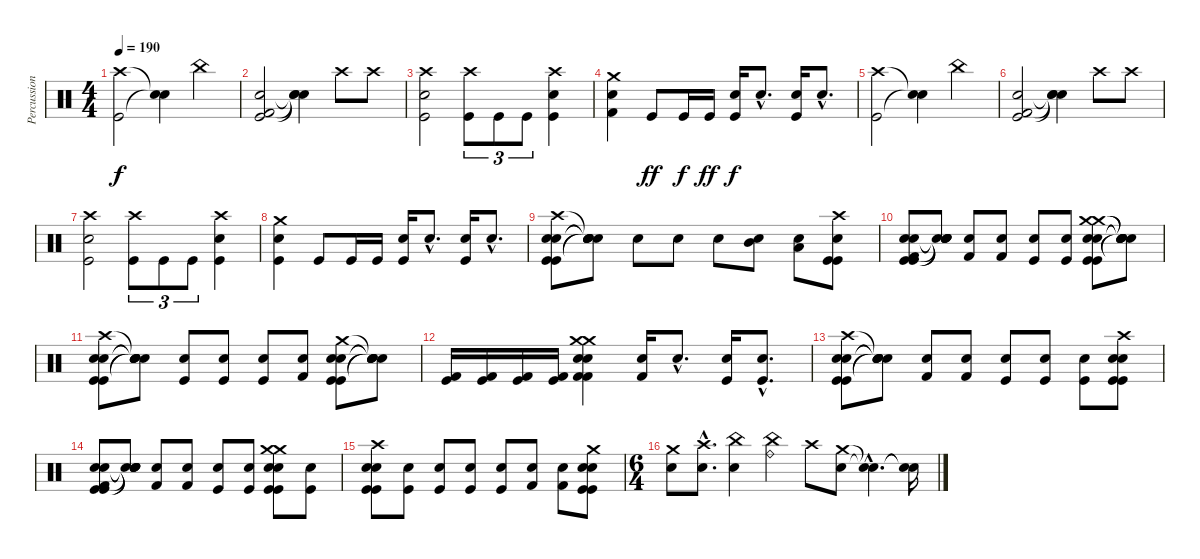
\track ("Percussion" "Percussion") {instrument percussion}
\staff {score}
\articulation defaults
\ts (4 4)
\tempo 190
\tempo 160
\tempo 190
\clef neutral
\ks c
("Crash high (hit)" "Kick (hit)").2{dy f} ("Snare (hit)"{t} "Snare (hit)"{t}).4 "China (hit)".4 |
("Snare (hit) 2" "Kick (hit)" "Kick (hit) 2").2 ("Snare (hit)"{t} "Snare (hit)"{t} "Snare (hit)"{t}).4 "Crash high (hit)".8 "Crash high (hit)".8 |
("Electric Snare (hit)" "Kick (hit)" "Crash high (hit)").2 ("Kick (hit)" "Crash high (hit)").8{tu (3 2)} "Kick (hit)".8{tu (3 2)} "Kick (hit)".8{tu (3 2)} ("Electric Snare (hit)" "Kick (hit)" "Crash high (hit)").4 |
("Electric Snare (hit)" "Kick (hit) 2" "Crash medium (hit)").4 "Kick (hit)".8{dy ff} "Kick (hit)".16{dy f} "Kick (hit)".16{dy ff} ("Snare (hit) 2" "Kick (hit)").16{dy f} "Electric Snare (hit)"{hac}.8{d} ("Snare (hit) 2" "Kick (hit)").16 "Electric Snare (hit)"{hac}.8{d} |
("Crash high (hit)" "Kick (hit)").2 ("Snare (hit)"{t} "Snare (hit)"{t}).4 "China (hit)".4 |
("Snare (hit) 2" "Kick (hit)" "Kick (hit) 2").2 ("Snare (hit)"{t} "Snare (hit)"{t} "Snare (hit)"{t}).4 "Crash high (hit)".8 "Crash high (hit)".8 |
("Electric Snare (hit)" "Kick (hit)" "Crash high (hit)").2 ("Kick (hit)" "Crash high (hit)").8{tu (3 2)} "Kick (hit)".8{tu (3 2)} "Kick (hit)".8{tu (3 2)} ("Electric Snare (hit)" "Kick (hit)" "Crash high (hit)").4 |
("Electric Snare (hit)" "Kick (hit)" "Crash medium (hit)").4 "Kick (hit)".8 "Kick (hit)".16 "Kick (hit)".16 ("Snare (hit) 2" "Kick (hit)").16 "Electric Snare (hit)"{hac}.8{d} ("Snare (hit) 2" "Kick (hit)").16 "Electric Snare (hit)"{hac}.8{d} |
("Electric Snare (hit)" "Electric Snare (hit)" "Kick (hit)" "Kick (hit)" "Crash high (hit)").8 ("Snare (hit)"{t} "Snare (hit)"{t} "Snare (hit)"{t} "Snare (hit)"{t} "Snare (hit)"{t}).8 "Snare (hit) 2".8 "Snare (hit) 2".8 "Snare (hit) 2".8 ("Snare (hit) 2" "Mid Tom (hit)").8 ("Snare (hit) 2" "Low Tom (hit)").8 ("Electric Snare (hit)" "Kick (hit)" "Kick (hit)" "Crash high (hit)").8 |
("Snare (hit) 2" "Snare (hit) 2" "Kick (hit)" "Kick (hit)" "Kick (hit) 2").8 ("Snare (hit)"{t} "Snare (hit)"{t} "Snare (hit)"{t} "Snare (hit)"{t} "Snare (hit)"{t}).8 ("Snare (hit) 2" "Kick (hit) 2").8 ("Snare (hit) 2" "Kick (hit) 2").8 ("Snare (hit) 2" "Kick (hit)").8 ("Snare (hit) 2" "Kick (hit)").8 ("Snare (hit) 2" "Snare (hit) 2" "Kick (hit)" "Kick (hit)" "Crash medium (hit)" "Crash medium (hit)").8 ("Snare (hit)"{t} "Snare (hit)"{t} "Snare (hit)"{t} "Snare (hit)"{t} "Snare (hit)"{t} "Snare (hit)"{t}).8 |
("Electric Snare (hit)" "Electric Snare (hit)" "Kick (hit)" "Kick (hit)" "Crash high (hit)").8 ("Snare (hit)"{t} "Snare (hit)"{t} "Snare (hit)"{t} "Snare (hit)"{t} "Snare (hit)"{t}).8 ("Snare (hit) 2" "Kick (hit)").8 ("Snare (hit) 2" "Kick (hit)").8 ("Snare (hit) 2" "Kick (hit)").8 ("Electric Snare (hit)" "Kick (hit) 2").8 ("Electric Snare (hit)" "Electric Snare (hit)" "Kick (hit)" "Kick (hit)" "Crash medium (hit)").8 ("Snare (hit)"{t} "Snare (hit)"{t} "Snare (hit)"{t} "Snare (hit)"{t} "Snare (hit)"{t}).8 |
("Kick (hit)" "Kick (hit) 2").16 ("Kick (hit)" "Kick (hit) 2").16 ("Kick (hit)" "Kick (hit) 2").16 ("Kick (hit)" "Kick (hit) 2").16 ("Electric Snare (hit)" "Electric Snare (hit)" "Kick (hit) 2" "Kick (hit) 2" "Crash medium (hit)" "Crash medium (hit)").4 ("Snare (hit) 2" "Kick (hit) 2").16 "Electric Snare (hit)"{hac}.8{d} ("Snare (hit) 2" "Kick (hit)").16 ("Electric Snare (hit)"{hac} "Kick (hit)"{hac}).8{d} |
("Electric Snare (hit)" "Electric Snare (hit)" "Kick (hit)" "Kick (hit)" "Crash high (hit)").8 ("Snare (hit)"{t} "Snare (hit)"{t} "Snare (hit)"{t} "Snare (hit)"{t} "Snare (hit)"{t}).8 ("Snare (hit) 2" "Kick (hit) 2").8 ("Snare (hit) 2" "Kick (hit) 2").8 ("Snare (hit) 2" "Kick (hit)").8 ("Snare (hit) 2" "Kick (hit)").8 ("Snare (hit) 2" "Kick (hit)").8 ("Electric Snare (hit)" "Electric Snare (hit)" "Kick (hit)" "Kick (hit)" "Crash high (hit)").8 |
("Snare (hit) 2" "Snare (hit) 2" "Kick (hit)" "Kick (hit)" "Kick (hit) 2").8 ("Snare (hit)"{t} "Snare (hit)"{t} "Snare (hit)"{t} "Snare (hit)"{t} "Snare (hit)"{t}).8 ("Snare (hit) 2" "Kick (hit) 2").8 ("Snare (hit) 2" "Kick (hit) 2").8 ("Snare (hit) 2" "Kick (hit)").8 ("Snare (hit) 2" "Kick (hit)").8 ("Snare (hit) 2" "Snare (hit) 2" "Kick (hit)" "Kick (hit)" "Crash medium (hit)" "Crash medium (hit)").8 ("Snare (hit) 2" "Kick (hit)").8 |
("Electric Snare (hit)" "Electric Snare (hit)" "Kick (hit)" "Kick (hit)" "Crash high (hit)").8 ("Snare (hit) 2" "Kick (hit)").8 ("Snare (hit) 2" "Kick (hit)").8 ("Snare (hit) 2" "Kick (hit)").8 ("Snare (hit) 2" "Kick (hit)").8 ("Electric Snare (hit)" "Kick (hit) 2").8 ("Electric Snare (hit)" "Kick (hit) 2").8 ("Electric Snare (hit)" "Electric Snare (hit)" "Kick (hit)" "Kick (hit)" "Crash medium (hit)").8 |
\ts (6 4)
("Electric Snare (hit)" "Crash medium (hit)").8 ("Electric Snare (hit)"{hac} "Crash high (hit)"{hac}).8{d} ("Electric Snare (hit)" "China (hit)").4 ("China (hit)" "Ride (bell)").4 "Crash high (hit)".8 ("Crash medium (hit)" "Electric Snare (hit)").8 ("Snare (hit)"{hac t} "Snare (hit)"{hac t}).4{d} ("Snare (hit)"{t} "Snare (hit)"{t}).16
